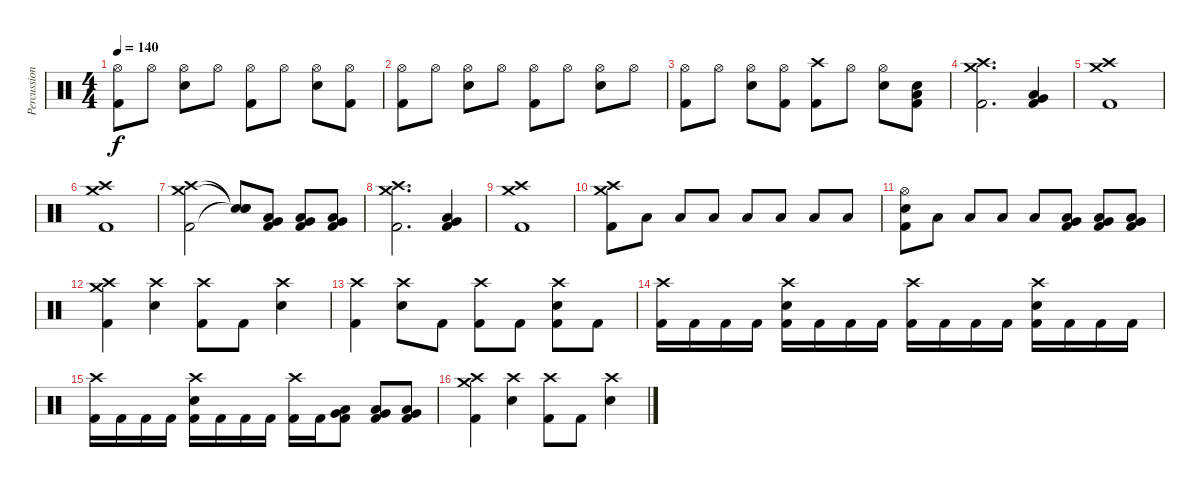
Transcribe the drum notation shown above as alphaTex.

\track ("Percussion" "Percussion") {instrument percussion}
\staff {score}
\articulation defaults
\ts (4 4)
\tempo 140
\clef neutral
\ks c
("Hi-Hat (open)" "Kick (hit) 2").8{dy f} "Hi-Hat (open)".8 ("Hi-Hat (open)" "Electric Snare (hit)").8 "Hi-Hat (open)".8 ("Hi-Hat (open)" "Kick (hit) 2").8 "Hi-Hat (open)".8 ("Hi-Hat (open)" "Electric Snare (hit)").8 ("Hi-Hat (open)" "Kick (hit) 2").8 |
("Hi-Hat (open)" "Kick (hit) 2").8 "Hi-Hat (open)".8 ("Hi-Hat (open)" "Electric Snare (hit)").8 "Hi-Hat (open)".8 ("Hi-Hat (open)" "Kick (hit) 2").8 "Hi-Hat (open)".8 ("Hi-Hat (open)" "Electric Snare (hit)").8 "Hi-Hat (open)".8 |
("Hi-Hat (open)" "Kick (hit) 2").8 "Hi-Hat (open)".8 ("Hi-Hat (open)" "Electric Snare (hit)").8 ("Hi-Hat (open)" "Kick (hit) 2").8 ("Crash high (hit)" "Kick (hit) 2").8 "Hi-Hat (open)".8 ("Hi-Hat (open)" "Electric Snare (hit)").8 ("Electric Snare (hit)" "Low Floor Tom (hit)" "Kick (hit) 2").8 |
("Crash medium (hit)" "Crash high (hit)" "Kick (hit) 2").2{d} ("Low Tom (hit)" "Very Low Tom (hit)" "Kick (hit) 2").4 |
("Crash medium (hit)" "Crash high (hit)" "Kick (hit) 2").1 |
("Crash medium (hit)" "Crash high (hit)" "Kick (hit) 2").1 |
("Crash medium (hit)" "Crash high (hit)" "Kick (hit) 2").2 ("Snare (hit)"{t} "Snare (hit)"{t} "Snare (hit)"{t}).8 ("Low Tom (hit)" "Very Low Tom (hit)" "Kick (hit) 2").8 ("Low Tom (hit)" "Very Low Tom (hit)" "Kick (hit) 2").8 ("Low Tom (hit)" "Very Low Tom (hit)" "Kick (hit) 2").8 |
("Crash medium (hit)" "Crash high (hit)" "Kick (hit) 2").2{d} ("Low Tom (hit)" "Very Low Tom (hit)" "Kick (hit) 2").4 |
("Crash medium (hit)" "Crash high (hit)" "Kick (hit) 2").1 |
("Crash medium (hit)" "Crash high (hit)" "Kick (hit) 2").8 "Low Tom (hit)".8 "Low Tom (hit)".8 "Low Tom (hit)".8 "Low Tom (hit)".8 "Low Tom (hit)".8 "Low Tom (hit)".8 "Low Tom (hit)".8 |
("Hi-Hat (open)" "Electric Snare (hit)" "Kick (hit) 2").8 "Low Tom (hit)".8 "Low Tom (hit)".8 "Low Tom (hit)".8 "Low Tom (hit)".8 ("Low Tom (hit)" "Very Low Tom (hit)" "Kick (hit) 2").8 ("Low Tom (hit)" "Very Low Tom (hit)" "Kick (hit) 2").8 ("Low Tom (hit)" "Very Low Tom (hit)" "Kick (hit) 2").8 |
("Crash medium (hit)" "Crash high (hit)" "Kick (hit) 2").4 ("Crash high (hit)" "Electric Snare (hit)").4 ("Crash high (hit)" "Kick (hit) 2").8 "Kick (hit) 2".8 ("Crash high (hit)" "Electric Snare (hit)").4 |
("Crash high (hit)" "Kick (hit) 2").4 ("Crash high (hit)" "Electric Snare (hit)").8 "Kick (hit) 2".8 ("Crash high (hit)" "Kick (hit) 2").8 "Kick (hit) 2".8 ("Crash high (hit)" "Electric Snare (hit)" "Kick (hit) 2").8 "Kick (hit) 2".8 |
("Crash high (hit)" "Kick (hit) 2").16 "Kick (hit) 2".16 "Kick (hit) 2".16 "Kick (hit) 2".16 ("Crash high (hit)" "Electric Snare (hit)" "Kick (hit) 2").16 "Kick (hit) 2".16 "Kick (hit) 2".16 "Kick (hit) 2".16 ("Crash high (hit)" "Kick (hit) 2").16 "Kick (hit) 2".16 "Kick (hit) 2".16 "Kick (hit) 2".16 ("Crash high (hit)" "Electric Snare (hit)" "Kick (hit) 2").16 "Kick (hit) 2".16 "Kick (hit) 2".16 "Kick (hit) 2".16 |
("Crash high (hit)" "Kick (hit) 2").16 "Kick (hit) 2".16 "Kick (hit) 2".16 "Kick (hit) 2".16 ("Crash high (hit)" "Electric Snare (hit)" "Kick (hit) 2").16 "Kick (hit) 2".16 "Kick (hit) 2".16 "Kick (hit) 2".16 ("Crash high (hit)" "Kick (hit) 2").16 "Kick (hit) 2".16 ("Low Tom (hit)" "Very Low Tom (hit)" "Kick (hit) 2").8 ("Low Tom (hit)" "Very Low Tom (hit)" "Kick (hit) 2").8 ("Low Tom (hit)" "Very Low Tom (hit)" "Kick (hit) 2").8 |
("Crash medium (hit)" "Crash high (hit)" "Kick (hit) 2").4 ("Crash high (hit)" "Electric Snare (hit)").4 ("Crash high (hit)" "Kick (hit) 2").8 "Kick (hit) 2".8 ("Crash high (hit)" "Electric Snare (hit)").4
